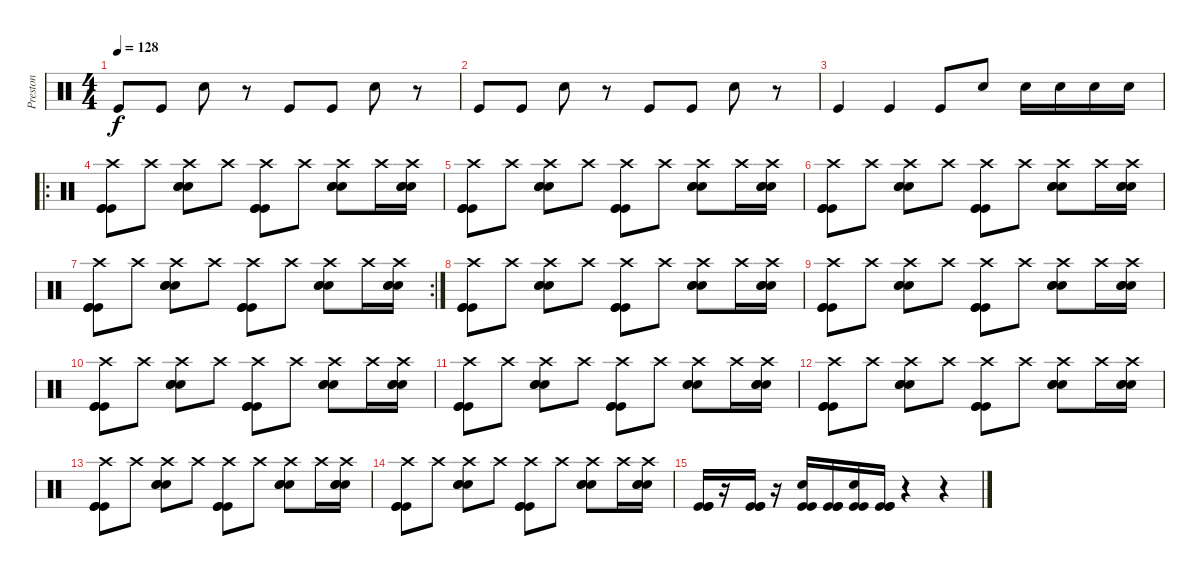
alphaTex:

\track ("Preston" "Preston") {instrument percussion}
\staff {score}
\articulation defaults
\ts (4 4)
\tempo 128
\clef neutral
\ks c "Kick (hit)".8{dy f} "Kick (hit)".8 "Electric Snare (hit)".8
r.8 "Kick (hit)".8 "Kick (hit)".8 "Electric Snare (hit)".8 r.8 |
"Kick (hit)".8 "Kick (hit)".8 "Electric Snare (hit)".8 r.8 "Kick (hit)".8 "Kick (hit)".8 "Electric Snare (hit)".8 r.8 |
"Kick (hit)".4 "Kick (hit)".4 "Kick (hit)".8 "Electric Snare (hit)".8 "Electric Snare (hit)".16 "Electric Snare (hit)".16 "Electric Snare (hit)".16 "Electric Snare (hit)".16 |
\ro
("Crash high (hit)" "Kick (hit)" "Kick (hit)" "Kick (hit)").8 "Crash high (hit)".8 ("Crash high (hit)" "Electric Snare (hit)" "Electric Snare (hit)" "Electric Snare (hit)").8 "Crash high (hit)".8 ("Crash high (hit)" "Kick (hit)" "Kick (hit)" "Kick (hit)").8 "Crash high (hit)".8 ("Crash high (hit)" "Electric Snare (hit)" "Electric Snare (hit)" "Electric Snare (hit)").8 "Crash high (hit)".16 ("Crash high (hit)" "Electric Snare (hit)" "Electric Snare (hit)" "Electric Snare (hit)").16 |
("Crash high (hit)" "Kick (hit)" "Kick (hit)" "Kick (hit)").8 "Crash high (hit)".8 ("Crash high (hit)" "Electric Snare (hit)" "Electric Snare (hit)" "Electric Snare (hit)").8 "Crash high (hit)".8 ("Crash high (hit)" "Kick (hit)" "Kick (hit)" "Kick (hit)").8 "Crash high (hit)".8 ("Crash high (hit)" "Electric Snare (hit)" "Electric Snare (hit)" "Electric Snare (hit)").8 "Crash high (hit)".16 ("Crash high (hit)" "Electric Snare (hit)" "Electric Snare (hit)" "Electric Snare (hit)").16 |
("Crash high (hit)" "Kick (hit)" "Kick (hit)" "Kick (hit)").8 "Crash high (hit)".8 ("Crash high (hit)" "Electric Snare (hit)" "Electric Snare (hit)" "Electric Snare (hit)").8 "Crash high (hit)".8 ("Crash high (hit)" "Kick (hit)" "Kick (hit)" "Kick (hit)").8 "Crash high (hit)".8 ("Crash high (hit)" "Electric Snare (hit)" "Electric Snare (hit)" "Electric Snare (hit)").8 "Crash high (hit)".16 ("Crash high (hit)" "Electric Snare (hit)" "Electric Snare (hit)" "Electric Snare (hit)").16 |
\rc 2
("Crash high (hit)" "Kick (hit)" "Kick (hit)" "Kick (hit)").8 "Crash high (hit)".8 ("Crash high (hit)" "Electric Snare (hit)" "Electric Snare (hit)" "Electric Snare (hit)").8 "Crash high (hit)".8 ("Crash high (hit)" "Kick (hit)" "Kick (hit)" "Kick (hit)").8 "Crash high (hit)".8 ("Crash high (hit)" "Electric Snare (hit)" "Electric Snare (hit)" "Electric Snare (hit)").8 "Crash high (hit)".16 ("Crash high (hit)" "Electric Snare (hit)" "Electric Snare (hit)" "Electric Snare (hit)").16 |
("Crash high (hit)" "Kick (hit)" "Kick (hit)" "Kick (hit)").8 "Crash high (hit)".8 ("Crash high (hit)" "Electric Snare (hit)" "Electric Snare (hit)" "Electric Snare (hit)").8 "Crash high (hit)".8 ("Crash high (hit)" "Kick (hit)" "Kick (hit)" "Kick (hit)").8 "Crash high (hit)".8 ("Crash high (hit)" "Electric Snare (hit)" "Electric Snare (hit)" "Electric Snare (hit)").8 "Crash high (hit)".16 ("Crash high (hit)" "Electric Snare (hit)" "Electric Snare (hit)" "Electric Snare (hit)").16 |
("Crash high (hit)" "Kick (hit)" "Kick (hit)" "Kick (hit)").8 "Crash high (hit)".8 ("Crash high (hit)" "Electric Snare (hit)" "Electric Snare (hit)" "Electric Snare (hit)").8 "Crash high (hit)".8 ("Crash high (hit)" "Kick (hit)" "Kick (hit)" "Kick (hit)").8 "Crash high (hit)".8 ("Crash high (hit)" "Electric Snare (hit)" "Electric Snare (hit)" "Electric Snare (hit)").8 "Crash high (hit)".16 ("Crash high (hit)" "Electric Snare (hit)" "Electric Snare (hit)" "Electric Snare (hit)").16 |
("Crash high (hit)" "Kick (hit)" "Kick (hit)" "Kick (hit)").8 "Crash high (hit)".8 ("Crash high (hit)" "Electric Snare (hit)" "Electric Snare (hit)" "Electric Snare (hit)").8 "Crash high (hit)".8 ("Crash high (hit)" "Kick (hit)" "Kick (hit)" "Kick (hit)").8 "Crash high (hit)".8 ("Crash high (hit)" "Electric Snare (hit)" "Electric Snare (hit)" "Electric Snare (hit)").8 "Crash high (hit)".16 ("Crash high (hit)" "Electric Snare (hit)" "Electric Snare (hit)" "Electric Snare (hit)").16 |
("Crash high (hit)" "Kick (hit)" "Kick (hit)" "Kick (hit)").8 "Crash high (hit)".8 ("Crash high (hit)" "Electric Snare (hit)" "Electric Snare (hit)" "Electric Snare (hit)").8 "Crash high (hit)".8 ("Crash high (hit)" "Kick (hit)" "Kick (hit)" "Kick (hit)").8 "Crash high (hit)".8 ("Crash high (hit)" "Electric Snare (hit)" "Electric Snare (hit)" "Electric Snare (hit)").8 "Crash high (hit)".16 ("Crash high (hit)" "Electric Snare (hit)" "Electric Snare (hit)" "Electric Snare (hit)").16 |
("Crash high (hit)" "Kick (hit)" "Kick (hit)" "Kick (hit)").8 "Crash high (hit)".8 ("Crash high (hit)" "Electric Snare (hit)" "Electric Snare (hit)" "Electric Snare (hit)").8 "Crash high (hit)".8 ("Crash high (hit)" "Kick (hit)" "Kick (hit)" "Kick (hit)").8 "Crash high (hit)".8 ("Crash high (hit)" "Electric Snare (hit)" "Electric Snare (hit)" "Electric Snare (hit)").8 "Crash high (hit)".16 ("Crash high (hit)" "Electric Snare (hit)" "Electric Snare (hit)" "Electric Snare (hit)").16 |
("Crash high (hit)" "Kick (hit)" "Kick (hit)" "Kick (hit)").8 "Crash high (hit)".8 ("Crash high (hit)" "Electric Snare (hit)" "Electric Snare (hit)" "Electric Snare (hit)").8 "Crash high (hit)".8 ("Crash high (hit)" "Kick (hit)" "Kick (hit)" "Kick (hit)").8 "Crash high (hit)".8 ("Crash high (hit)" "Electric Snare (hit)" "Electric Snare (hit)" "Electric Snare (hit)").8 "Crash high (hit)".16 ("Crash high (hit)" "Electric Snare (hit)" "Electric Snare (hit)" "Electric Snare (hit)").16 |
("Crash high (hit)" "Kick (hit)" "Kick (hit)" "Kick (hit)").8 "Crash high (hit)".8 ("Crash high (hit)" "Electric Snare (hit)" "Electric Snare (hit)" "Electric Snare (hit)").8 "Crash high (hit)".8 ("Crash high (hit)" "Kick (hit)" "Kick (hit)" "Kick (hit)").8 "Crash high (hit)".8 ("Crash high (hit)" "Electric Snare (hit)" "Electric Snare (hit)" "Electric Snare (hit)").8 "Crash high (hit)".16 ("Crash high (hit)" "Electric Snare (hit)" "Electric Snare (hit)" "Electric Snare (hit)").16 |
("Kick (hit)" "Kick (hit)" "Kick (hit)").16 r.16 ("Kick (hit)" "Kick (hit)" "Kick (hit)").16 r.16 ("Kick (hit)" "Kick (hit)" "Electric Snare (hit)").16 ("Kick (hit)" "Kick (hit)" "Kick (hit)").16 ("Kick (hit)" "Kick (hit)" "Electric Snare (hit)").16 ("Kick (hit)" "Kick (hit)" "Kick (hit)").16 r.4 r.4
